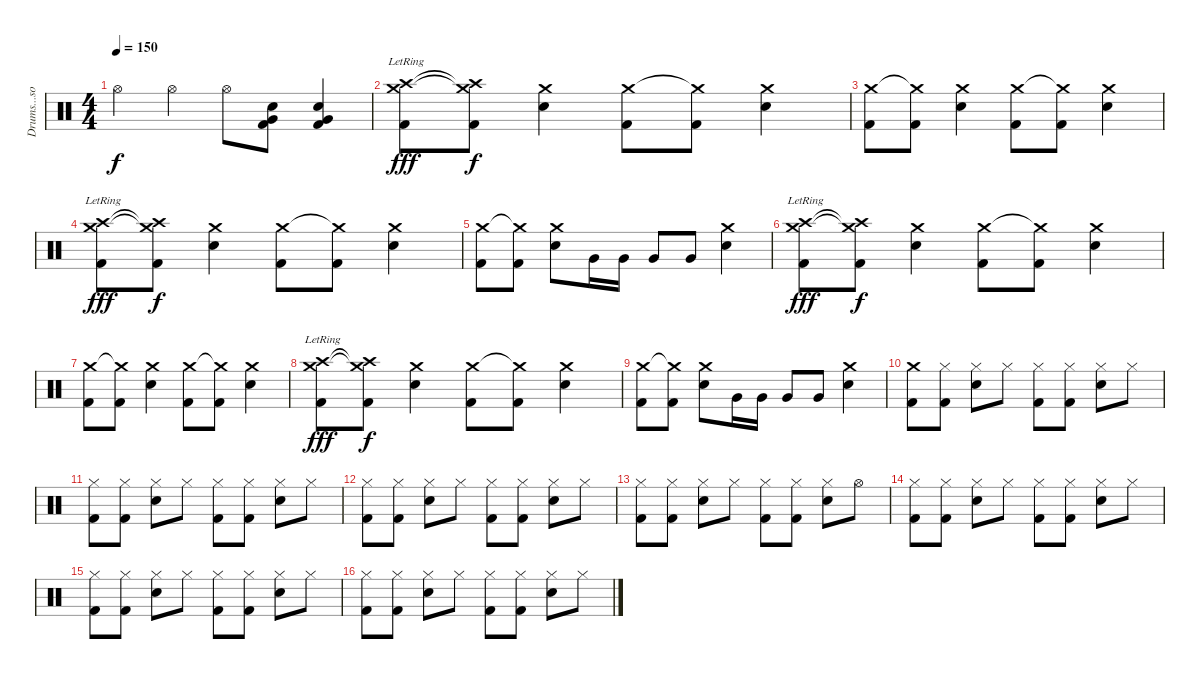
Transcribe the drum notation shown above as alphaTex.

\track ("Drums...song tabbed by ae" "Drums...so") {instrument percussion}
\staff {score}
\articulation defaults
\ts (4 4)
\tempo 150
\clef neutral
\ks c "Hi-Hat (open)".4{dy f} "Hi-Hat (open)".4 "Hi-Hat (open)".8
("Electric Snare (hit)" "Very Low Tom (hit)" "Kick (hit) 2").8 ("Electric Snare (hit)" "Very Low Tom (hit)" "Kick (hit) 2").4 |
("Crash medium (hit)"{lr} "Crash high (hit)" "Kick (hit) 2").8{dy fff} ("Crash medium (hit)"{t} "Crash high (hit)"{t} "Kick (hit) 2").8{dy f} ("Crash medium (hit)" "Electric Snare (hit)").4 ("Crash medium (hit)" "Kick (hit) 2").8 ("Crash medium (hit)"{t} "Kick (hit) 2").8 ("Crash medium (hit)" "Electric Snare (hit)").4 |
("Crash medium (hit)" "Kick (hit) 2").8 ("Crash medium (hit)"{t} "Kick (hit) 2").8 ("Crash medium (hit)" "Electric Snare (hit)").4 ("Crash medium (hit)" "Kick (hit) 2").8 ("Crash medium (hit)"{t} "Kick (hit) 2").8 ("Crash medium (hit)" "Electric Snare (hit)").4 |
("Crash medium (hit)"{lr} "Crash high (hit)" "Kick (hit) 2").8{dy fff} ("Crash medium (hit)"{t} "Crash high (hit)"{t} "Kick (hit) 2").8{dy f} ("Crash medium (hit)" "Electric Snare (hit)").4 ("Crash medium (hit)" "Kick (hit) 2").8 ("Crash medium (hit)"{t} "Kick (hit) 2").8 ("Crash medium (hit)" "Electric Snare (hit)").4 |
("Crash medium (hit)" "Kick (hit) 2").8 ("Crash medium (hit)"{t} "Kick (hit) 2").8 ("Crash medium (hit)" "Electric Snare (hit)").8 "Very Low Tom (hit)".16 "Very Low Tom (hit)".16 "Very Low Tom (hit)".8 "Very Low Tom (hit)".8 ("Crash medium (hit)" "Electric Snare (hit)").4 |
("Crash medium (hit)"{lr} "Crash high (hit)" "Kick (hit) 2").8{dy fff} ("Crash medium (hit)"{t} "Crash high (hit)"{t} "Kick (hit) 2").8{dy f} ("Crash medium (hit)" "Electric Snare (hit)").4 ("Crash medium (hit)" "Kick (hit) 2").8 ("Crash medium (hit)"{t} "Kick (hit) 2").8 ("Crash medium (hit)" "Electric Snare (hit)").4 |
("Crash medium (hit)" "Kick (hit) 2").8 ("Crash medium (hit)"{t} "Kick (hit) 2").8 ("Crash medium (hit)" "Electric Snare (hit)").4 ("Crash medium (hit)" "Kick (hit) 2").8 ("Crash medium (hit)"{t} "Kick (hit) 2").8 ("Crash medium (hit)" "Electric Snare (hit)").4 |
("Crash medium (hit)"{lr} "Crash high (hit)" "Kick (hit) 2").8{dy fff} ("Crash medium (hit)"{t} "Crash high (hit)"{t} "Kick (hit) 2").8{dy f} ("Crash medium (hit)" "Electric Snare (hit)").4 ("Crash medium (hit)" "Kick (hit) 2").8 ("Crash medium (hit)"{t} "Kick (hit) 2").8 ("Crash medium (hit)" "Electric Snare (hit)").4 |
("Crash medium (hit)" "Kick (hit) 2").8 ("Crash medium (hit)"{t} "Kick (hit) 2").8 ("Crash medium (hit)" "Electric Snare (hit)").8 "Very Low Tom (hit)".16 "Very Low Tom (hit)".16 "Very Low Tom (hit)".8 "Very Low Tom (hit)".8 ("Crash medium (hit)" "Electric Snare (hit)").4 |
("Crash medium (hit)" "Kick (hit) 2").8 ("Hi-Hat (closed)" "Kick (hit) 2").8 ("Hi-Hat (closed)" "Electric Snare (hit)").8 "Hi-Hat (closed)".8 ("Hi-Hat (closed)" "Kick (hit) 2").8 ("Hi-Hat (closed)" "Kick (hit) 2").8 ("Hi-Hat (closed)" "Electric Snare (hit)").8 "Hi-Hat (closed)".8 |
("Hi-Hat (closed)" "Kick (hit) 2").8 ("Hi-Hat (closed)" "Kick (hit) 2").8 ("Hi-Hat (closed)" "Electric Snare (hit)").8 "Hi-Hat (closed)".8 ("Hi-Hat (closed)" "Kick (hit) 2").8 ("Hi-Hat (closed)" "Kick (hit) 2").8 ("Hi-Hat (closed)" "Electric Snare (hit)").8 "Hi-Hat (closed)".8 |
("Hi-Hat (closed)" "Kick (hit) 2").8 ("Hi-Hat (closed)" "Kick (hit) 2").8 ("Hi-Hat (closed)" "Electric Snare (hit)").8 "Hi-Hat (closed)".8 ("Hi-Hat (closed)" "Kick (hit) 2").8 ("Hi-Hat (closed)" "Kick (hit) 2").8 ("Hi-Hat (closed)" "Electric Snare (hit)").8 "Hi-Hat (closed)".8 |
("Hi-Hat (closed)" "Kick (hit) 2").8 ("Hi-Hat (closed)" "Kick (hit) 2").8 ("Hi-Hat (closed)" "Electric Snare (hit)").8 "Hi-Hat (closed)".8 ("Hi-Hat (closed)" "Kick (hit) 2").8 ("Hi-Hat (closed)" "Kick (hit) 2").8 ("Hi-Hat (closed)" "Electric Snare (hit)").8 "Hi-Hat (open)".8 |
("Hi-Hat (closed)" "Kick (hit) 2").8 ("Hi-Hat (closed)" "Kick (hit) 2").8 ("Hi-Hat (closed)" "Electric Snare (hit)").8 "Hi-Hat (closed)".8 ("Hi-Hat (closed)" "Kick (hit) 2").8 ("Hi-Hat (closed)" "Kick (hit) 2").8 ("Hi-Hat (closed)" "Electric Snare (hit)").8 "Hi-Hat (closed)".8 |
("Hi-Hat (closed)" "Kick (hit) 2").8 ("Hi-Hat (closed)" "Kick (hit) 2").8 ("Hi-Hat (closed)" "Electric Snare (hit)").8 "Hi-Hat (closed)".8 ("Hi-Hat (closed)" "Kick (hit) 2").8 ("Hi-Hat (closed)" "Kick (hit) 2").8 ("Hi-Hat (closed)" "Electric Snare (hit)").8 "Hi-Hat (closed)".8 |
("Hi-Hat (closed)" "Kick (hit) 2").8 ("Hi-Hat (closed)" "Kick (hit) 2").8 ("Hi-Hat (closed)" "Electric Snare (hit)").8 "Hi-Hat (closed)".8 ("Hi-Hat (closed)" "Kick (hit) 2").8 ("Hi-Hat (closed)" "Kick (hit) 2").8 ("Hi-Hat (closed)" "Electric Snare (hit)").8 "Hi-Hat (closed)".8
